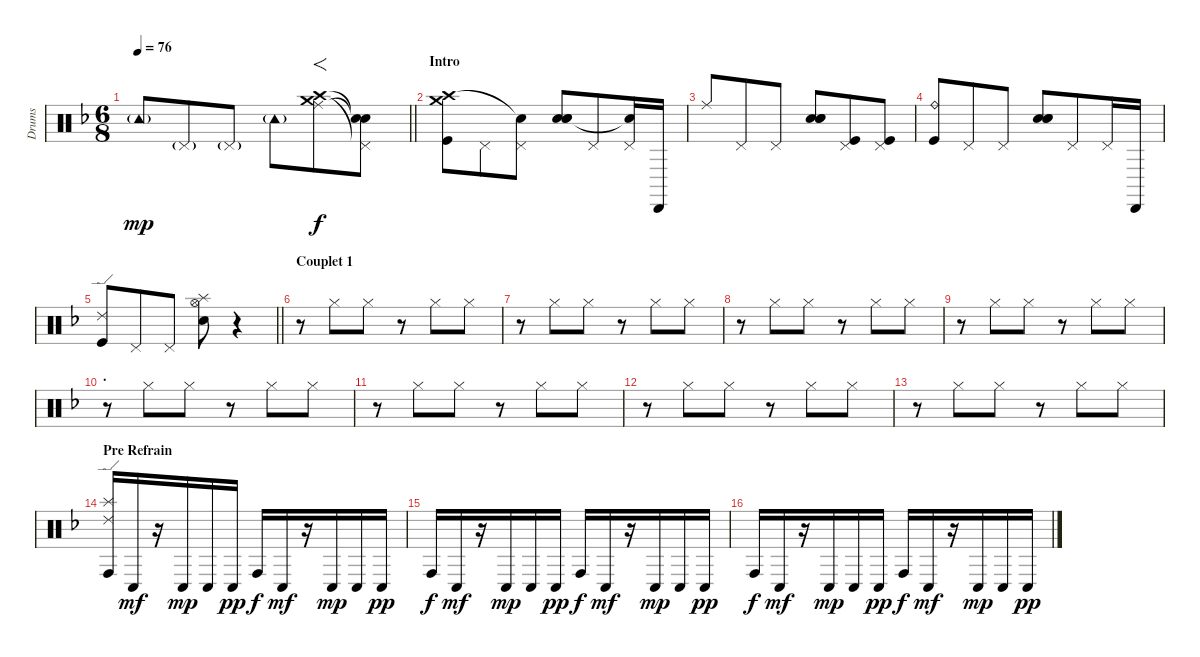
\track ("Drums" "Drums") {instrument percussion}
\staff {score}
\articulation defaults
\ts (6 8)
\tempo 76
\clef neutral
\barLineRight lightlight
\ks f "Tambourine (hit)"{g}.8{dy mp} "Pedal Hi-Hat (hit)"{g}.8 "Pedal Hi-Hat (hit)"{g}.8 "Tambourine (hit)"{g}.8
("Crash medium (hit)" "Crash high (hit)" "Ride (middle)").8{f dy f} ("Pedal Hi-Hat (hit)"{t} "Snare (hit)"{t} "Snare (hit)"{t}).8 |
\section ("" "Intro")
("Crash medium (hit)" "Crash high (hit)" "Kick (hit)").8 "Pedal Hi-Hat (hit)".8 ("Pedal Hi-Hat (hit)" "Snare (hit)"{t}).8 ("Metronome (bell)" "Electric Snare (hit)" "Snare (hit) 2").8 "Pedal Hi-Hat (hit)".8 ("Pedal Hi-Hat (hit)" "Snare (hit)"{t}).16 "Cabasa (hit)".16 |
"Ride (middle)".8 "Pedal Hi-Hat (hit)".8 "Pedal Hi-Hat (hit)".8 ("Metronome (bell)" "Electric Snare (hit)" "Snare (hit) 2").8 ("Pedal Hi-Hat (hit)" "Kick (hit)").8 ("Pedal Hi-Hat (hit)" "Kick (hit)").8 |
("Ride (bell)" "Kick (hit)").8 "Pedal Hi-Hat (hit)".8 "Pedal Hi-Hat (hit)".8 ("Metronome (bell)" "Electric Snare (hit)" "Snare (hit) 2").8 "Pedal Hi-Hat (hit)".8 "Pedal Hi-Hat (hit)".16 "Cabasa (hit)".16 |
\barLineRight lightlight
("Ride (edge) 2" "Kick (hit)").8 "Pedal Hi-Hat (hit)".8 "Pedal Hi-Hat (hit)".8 ("Hi-Hat (open)" "Splash (hit)" "Metronome (bell)").8 r.4 |
\section ("" "Couplet 1")
r.8{volume 4} "Hi-Hat (closed)".8 "Hi-Hat (closed)".8 r.8 "Hi-Hat (closed)".8 "Hi-Hat (closed)".8 |
r.8{volume 4} "Hi-Hat (closed)".8 "Hi-Hat (closed)".8 r.8 "Hi-Hat (closed)".8 "Hi-Hat (closed)".8 |
r.8{volume 4} "Hi-Hat (closed)".8 "Hi-Hat (closed)".8 r.8 "Hi-Hat (closed)".8 "Hi-Hat (closed)".8 |
r.8{volume 4} "Hi-Hat (closed)".8 "Hi-Hat (closed)".8 r.8 "Hi-Hat (closed)".8 "Hi-Hat (closed)".8 |
\section ("" ".")
r.8{volume 4} "Hi-Hat (closed)".8 "Hi-Hat (closed)".8 r.8 "Hi-Hat (closed)".8 "Hi-Hat (closed)".8 |
r.8{volume 4} "Hi-Hat (closed)".8 "Hi-Hat (closed)".8 r.8 "Hi-Hat (closed)".8 "Hi-Hat (closed)".8 |
r.8{volume 4} "Hi-Hat (closed)".8 "Hi-Hat (closed)".8 r.8 "Hi-Hat (closed)".8 "Hi-Hat (closed)".8 |
r.8{volume 4} "Hi-Hat (closed)".8 "Hi-Hat (closed)".8 r.8 "Hi-Hat (closed)".8 "Hi-Hat (closed)".8 |
\section ("" "Pre Refrain")
("Ride (edge) 2" "Splash (hit)" "Conga high (hit)").16{volume 16} "Conga low (hit)".16{dy mf} r.16 "Conga low (hit)".16{dy mp} "Conga low (hit)".16 "Conga low (hit)".16{dy pp} "Conga high (hit)".16{dy f} "Conga low (hit)".16{dy mf} r.16 "Conga low (hit)".16{dy mp} "Conga low (hit)".16 "Conga low (hit)".16{dy pp} |
"Conga high (hit)".16{dy f} "Conga low (hit)".16{dy mf} r.16 "Conga low (hit)".16{dy mp} "Conga low (hit)".16 "Conga low (hit)".16{dy pp} "Conga high (hit)".16{dy f} "Conga low (hit)".16{dy mf} r.16 "Conga low (hit)".16{dy mp} "Conga low (hit)".16 "Conga low (hit)".16{dy pp} |
"Conga high (hit)".16{dy f} "Conga low (hit)".16{dy mf} r.16 "Conga low (hit)".16{dy mp} "Conga low (hit)".16 "Conga low (hit)".16{dy pp} "Conga high (hit)".16{dy f} "Conga low (hit)".16{dy mf} r.16 "Conga low (hit)".16{dy mp} "Conga low (hit)".16 "Conga low (hit)".16{dy pp}
